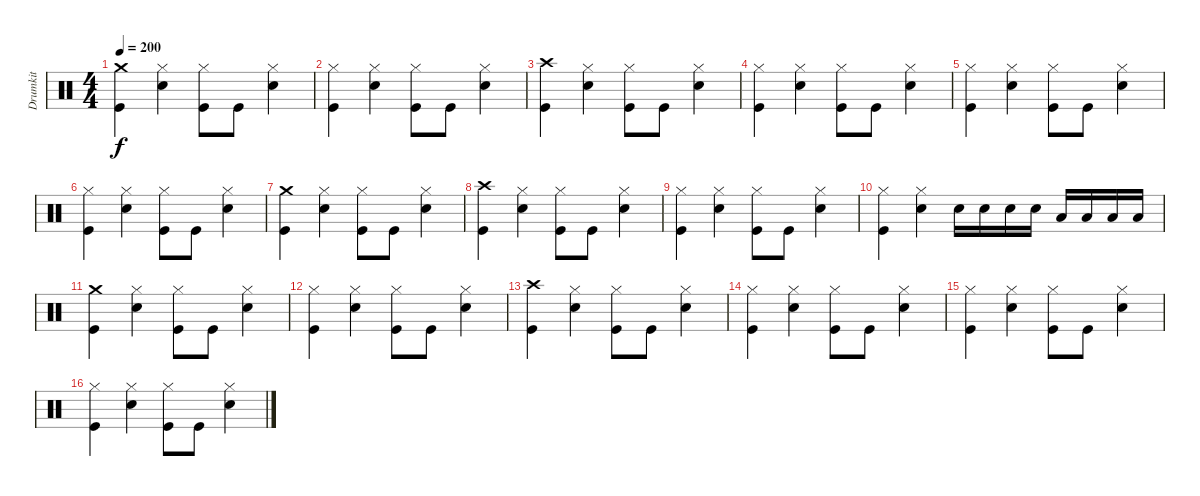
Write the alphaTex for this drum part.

\track ("Drumkit" "Drumkit") {instrument percussion}
\staff {score}
\articulation defaults
\ts (4 4)
\tempo 200
\clef neutral
\ks c
("Crash medium (hit)" "Kick (hit)").4{dy f} ("Hi-Hat (closed)" "Snare (hit) 2").4 ("Hi-Hat (closed)" "Kick (hit)").8 "Kick (hit)".8 ("Hi-Hat (closed)" "Snare (hit) 2").4 |
("Hi-Hat (closed)" "Kick (hit)").4 ("Hi-Hat (closed)" "Snare (hit) 2").4 ("Hi-Hat (closed)" "Kick (hit)").8 "Kick (hit)".8 ("Hi-Hat (closed)" "Snare (hit) 2").4 |
("Crash high (hit)" "Kick (hit)").4 ("Hi-Hat (closed)" "Snare (hit) 2").4 ("Hi-Hat (closed)" "Kick (hit)").8 "Kick (hit)".8 ("Hi-Hat (closed)" "Snare (hit) 2").4 |
("Hi-Hat (closed)" "Kick (hit)").4 ("Hi-Hat (closed)" "Snare (hit) 2").4 ("Hi-Hat (closed)" "Kick (hit)").8 "Kick (hit)".8 ("Hi-Hat (closed)" "Snare (hit) 2").4 |
("Hi-Hat (closed)" "Kick (hit)").4 ("Hi-Hat (closed)" "Snare (hit) 2").4 ("Hi-Hat (closed)" "Kick (hit)").8 "Kick (hit)".8 ("Hi-Hat (closed)" "Snare (hit) 2").4 |
("Hi-Hat (closed)" "Kick (hit)").4 ("Hi-Hat (closed)" "Snare (hit) 2").4 ("Hi-Hat (closed)" "Kick (hit)").8 "Kick (hit)".8 ("Hi-Hat (closed)" "Snare (hit) 2").4 |
("Crash medium (hit)" "Kick (hit)").4 ("Hi-Hat (closed)" "Snare (hit) 2").4 ("Hi-Hat (closed)" "Kick (hit)").8 "Kick (hit)".8 ("Hi-Hat (closed)" "Snare (hit) 2").4 |
("Crash high (hit)" "Kick (hit)").4 ("Hi-Hat (closed)" "Snare (hit) 2").4 ("Hi-Hat (closed)" "Kick (hit)").8 "Kick (hit)".8 ("Hi-Hat (closed)" "Snare (hit) 2").4 |
("Hi-Hat (closed)" "Kick (hit)").4 ("Hi-Hat (closed)" "Snare (hit) 2").4 ("Hi-Hat (closed)" "Kick (hit)").8 "Kick (hit)".8 ("Hi-Hat (closed)" "Snare (hit) 2").4 |
("Hi-Hat (closed)" "Kick (hit)").4 ("Hi-Hat (closed)" "Snare (hit) 2").4 "Snare (hit) 2".16 "Snare (hit) 2".16 "Snare (hit) 2".16 "Snare (hit) 2".16 "Low Floor Tom (hit)".16 "Low Floor Tom (hit)".16 "Low Tom (hit)".16 "Low Tom (hit)".16 |
("Crash medium (hit)" "Kick (hit)").4 ("Hi-Hat (closed)" "Snare (hit) 2").4 ("Hi-Hat (closed)" "Kick (hit)").8 "Kick (hit)".8 ("Hi-Hat (closed)" "Snare (hit) 2").4 |
("Hi-Hat (closed)" "Kick (hit)").4 ("Hi-Hat (closed)" "Snare (hit) 2").4 ("Hi-Hat (closed)" "Kick (hit)").8 "Kick (hit)".8 ("Hi-Hat (closed)" "Snare (hit) 2").4 |
("Crash high (hit)" "Kick (hit)").4 ("Hi-Hat (closed)" "Snare (hit) 2").4 ("Hi-Hat (closed)" "Kick (hit)").8 "Kick (hit)".8 ("Hi-Hat (closed)" "Snare (hit) 2").4 |
("Hi-Hat (closed)" "Kick (hit)").4 ("Hi-Hat (closed)" "Snare (hit) 2").4 ("Hi-Hat (closed)" "Kick (hit)").8 "Kick (hit)".8 ("Hi-Hat (closed)" "Snare (hit) 2").4 |
("Hi-Hat (closed)" "Kick (hit)").4 ("Hi-Hat (closed)" "Snare (hit) 2").4 ("Hi-Hat (closed)" "Kick (hit)").8 "Kick (hit)".8 ("Hi-Hat (closed)" "Snare (hit) 2").4 |
("Hi-Hat (closed)" "Kick (hit)").4 ("Hi-Hat (closed)" "Snare (hit) 2").4 ("Hi-Hat (closed)" "Kick (hit)").8 "Kick (hit)".8 ("Hi-Hat (closed)" "Snare (hit) 2").4
